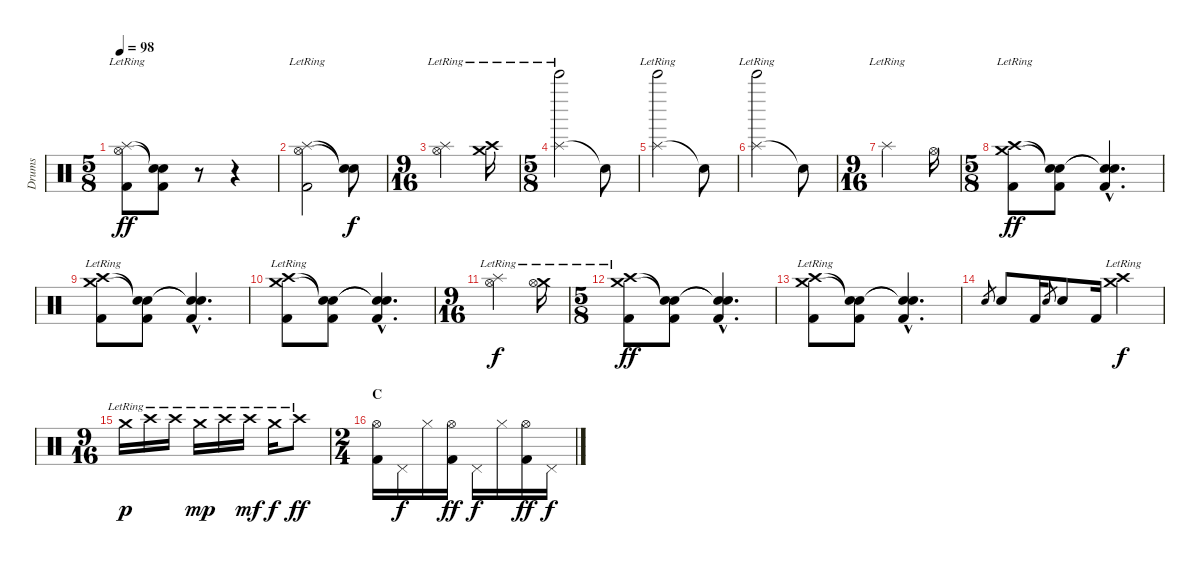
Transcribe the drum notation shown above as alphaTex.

\track ("Drums" "Drums") {instrument percussion}
\staff {score}
\articulation defaults
\ts (5 8)
\tempo 98
\clef neutral
\ks c
("Splash (hit)"{lr} "Hi-Hat (open)" "Kick (hit) 2").8{dy ff} ("Snare (hit)"{t} "Snare (hit)"{t} "Kick (hit) 2").8 r.8 r.4 |
("Splash (hit)"{lr} "Hi-Hat (open)" "Kick (hit) 2").2 ("Snare (hit)"{t} "Snare (hit)"{t}).8{dy f} |
\ts (9 16)
("Splash (hit)"{lr} "Hi-Hat (open)").2 ("Crash medium (hit)"{lr} "Crash high (hit)").16 |
\ts (5 8)
("Splash (hit)"{lr} "Bell Tree (hit)").2 "Snare (hit)"{t}.8 |
("Splash (hit)"{lr} "Bell Tree (hit)").2 "Snare (hit)"{t}.8 |
("Splash (hit)"{lr} "Bell Tree (hit)").2 "Snare (hit)"{t}.8 |
\ts (9 16)
"Splash (hit)"{lr}.2 "Hi-Hat (open)".16 |
\ts (5 8)
("Crash medium (hit)"{lr} "Crash high (hit)" "Kick (hit) 2").8{dy ff} ("Snare (hit)"{t} "Snare (hit)"{t} "Kick (hit) 2").8 ("Snare (hit)"{hac t} "Snare (hit)"{hac t} "Kick (hit) 2"{hac}).4{d} |
("Crash medium (hit)"{lr} "Crash high (hit)" "Kick (hit) 2").8 ("Snare (hit)"{t} "Snare (hit)"{t} "Kick (hit) 2").8 ("Snare (hit)"{hac t} "Snare (hit)"{hac t} "Kick (hit) 2"{hac}).4{d} |
("Crash medium (hit)"{lr} "Crash high (hit)" "Kick (hit) 2").8 ("Snare (hit)"{t} "Snare (hit)"{t} "Kick (hit) 2").8 ("Snare (hit)"{hac t} "Snare (hit)"{hac t} "Kick (hit) 2"{hac}).4{d} |
\ts (9 16)
("Splash (hit)"{lr} "Hi-Hat (open)").2{dy f} ("Crash medium (hit)"{lr} "Hi-Hat (open)").16 |
\ts (5 8)
("Crash medium (hit)"{lr} "Crash high (hit)" "Kick (hit) 2").8{dy ff} ("Snare (hit)"{t} "Snare (hit)"{t} "Kick (hit) 2").8 ("Snare (hit)"{hac t} "Snare (hit)"{hac t} "Kick (hit) 2"{hac}).4{d} |
("Crash medium (hit)"{lr} "Crash high (hit)" "Kick (hit) 2").8 ("Snare (hit)"{t} "Snare (hit)"{t} "Kick (hit) 2").8 ("Snare (hit)"{hac t} "Snare (hit)"{hac t} "Kick (hit) 2"{hac}).4{d} |
"Electric Snare (hit)".8{gr} "Snare (hit) 2".8 "Kick (hit) 2".16 "Electric Snare (hit)".8{gr} "Snare (hit) 2".8 "Kick (hit) 2".16 ("Crash medium (hit)"{lr} "Crash high (hit)").4{dy f} |
\ts (9 16)
"Crash medium (hit)"{lr}.16{dy p} "Crash high (hit)"{lr}.16 "Crash high (hit)"{lr}.16 "Crash medium (hit)"{lr}.16{dy mp} "Crash high (hit)"{lr}.16 "Crash high (hit)"{lr}.16{dy mf} "Crash medium (hit)"{lr}.16{dy f} "Crash high (hit)"{lr}.8{dy ff} |
\ts (2 4)
\section ("" "C")
("Hi-Hat (open)" "Kick (hit) 2").16 "Pedal Hi-Hat (hit)".16{dy f} "Hi-Hat (closed)".16 ("Hi-Hat (open)" "Kick (hit) 2").16{dy ff} "Pedal Hi-Hat (hit)".16{dy f} "Hi-Hat (closed)".16 ("Hi-Hat (open)" "Kick (hit) 2").16{dy ff} "Pedal Hi-Hat (hit)".16{dy f}
